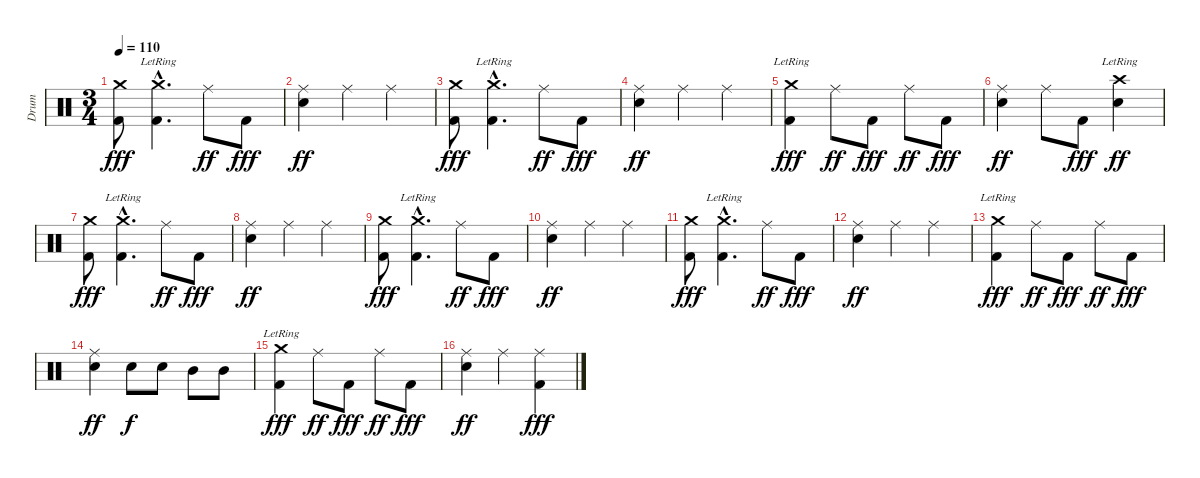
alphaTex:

\track ("Drum" "Drum") {instrument percussion}
\staff {score}
\articulation defaults
\ts (3 4)
\tempo 110
\clef neutral
\ks c
("Crash medium (hit)" "Kick (hit) 2").8{dy fff} ("Crash medium (hit)"{hac lr} "Kick (hit) 2"{hac}).4{d} "Ride (middle)".8{dy ff} "Kick (hit) 2".8{dy fff} |
("Ride (middle)" "Snare (hit) 2").4{dy ff} "Ride (middle)".4 "Ride (middle)".4 |
("Crash medium (hit)" "Kick (hit) 2").8{dy fff} ("Crash medium (hit)"{hac lr} "Kick (hit) 2"{hac}).4{d} "Ride (middle)".8{dy ff} "Kick (hit) 2".8{dy fff} |
("Ride (middle)" "Snare (hit) 2").4{dy ff} "Ride (middle)".4 "Ride (middle)".4 |
("Crash medium (hit)"{lr} "Kick (hit) 2").4{dy fff} "Ride (middle)".8{dy ff} "Kick (hit) 2".8{dy fff} "Ride (middle)".8{dy ff} "Kick (hit) 2".8{dy fff} |
("Ride (middle)" "Snare (hit) 2").4{dy ff} "Ride (middle)".8 "Kick (hit) 2".8{dy fff} ("Crash high (hit)"{lr} "Snare (hit) 2").4{dy ff} |
("Crash medium (hit)" "Kick (hit) 2").8{dy fff} ("Crash medium (hit)"{hac lr} "Kick (hit) 2"{hac}).4{d} "Ride (middle)".8{dy ff} "Kick (hit) 2".8{dy fff} |
("Ride (middle)" "Snare (hit) 2").4{dy ff} "Ride (middle)".4 "Ride (middle)".4 |
("Crash medium (hit)" "Kick (hit) 2").8{dy fff} ("Crash medium (hit)"{hac lr} "Kick (hit) 2"{hac}).4{d} "Ride (middle)".8{dy ff} "Kick (hit) 2".8{dy fff} |
("Ride (middle)" "Snare (hit) 2").4{dy ff} "Ride (middle)".4 "Ride (middle)".4 |
("Crash medium (hit)" "Kick (hit) 2").8{dy fff} ("Crash medium (hit)"{hac lr} "Kick (hit) 2"{hac}).4{d} "Ride (middle)".8{dy ff} "Kick (hit) 2".8{dy fff} |
("Ride (middle)" "Snare (hit) 2").4{dy ff} "Ride (middle)".4 "Ride (middle)".4 |
("Crash medium (hit)"{lr} "Kick (hit) 2").4{dy fff} "Ride (middle)".8{dy ff} "Kick (hit) 2".8{dy fff} "Ride (middle)".8{dy ff} "Kick (hit) 2".8{dy fff} |
("Ride (middle)" "Snare (hit) 2").4{dy ff} "Snare (hit) 2".8{dy f} "Snare (hit) 2".8 "Mid Tom (hit)".8 "Mid Tom (hit)".8 |
("Crash medium (hit)"{lr} "Kick (hit) 2").4{dy fff} "Ride (middle)".8{dy ff} "Kick (hit) 2".8{dy fff} "Ride (middle)".8{dy ff} "Kick (hit) 2".8{dy fff} |
("Ride (middle)" "Snare (hit) 2").4{dy ff} "Ride (middle)".4 ("Ride (middle)" "Kick (hit) 2").4{dy fff}
